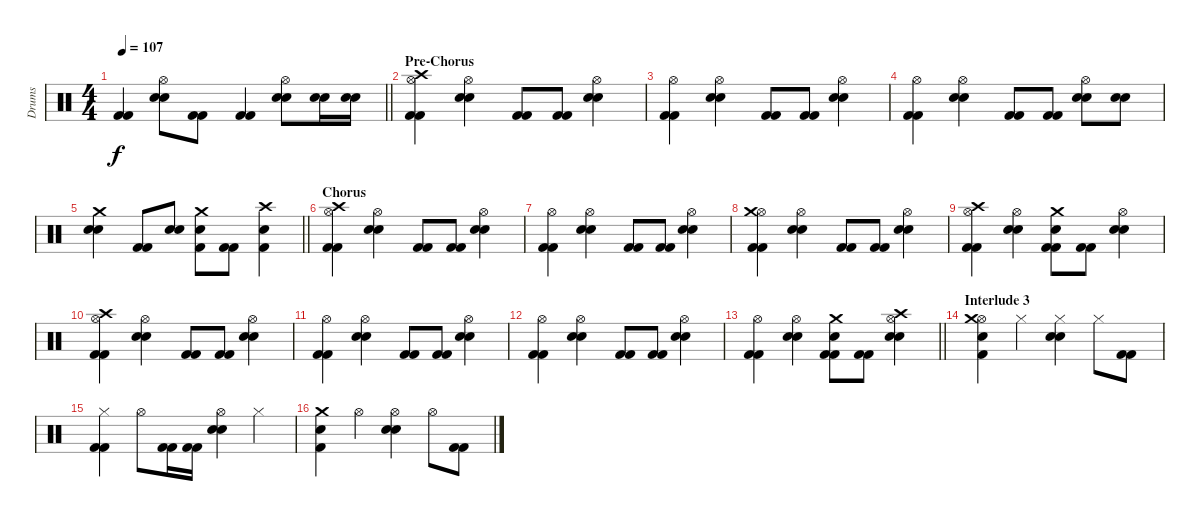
\track ("Drums" "Drums") {instrument percussion}
\staff {score}
\articulation defaults
\ts (4 4)
\tempo 107
\clef neutral
\barLineRight lightlight
\ks c
("Kick (hit) 2" "Kick (hit) 2").4{dy f} ("Snare (hit) 2" "Snare (hit) 2" "Hi-Hat (open)").8 ("Kick (hit) 2" "Kick (hit) 2").8 ("Kick (hit) 2" "Kick (hit) 2").4 ("Snare (hit) 2" "Snare (hit) 2" "Hi-Hat (open)").8 ("Snare (hit) 2" "Snare (hit) 2").16 ("Snare (hit) 2" "Snare (hit) 2").16 |
\section ("" "Pre-Chorus")
("Kick (hit) 2" "Kick (hit) 2" "Hi-Hat (open)" "Crash high (hit)").4 ("Snare (hit) 2" "Snare (hit) 2" "Hi-Hat (open)").4 ("Kick (hit) 2" "Kick (hit) 2").8 ("Kick (hit) 2" "Kick (hit) 2").8 ("Snare (hit) 2" "Snare (hit) 2" "Hi-Hat (open)").4 |
("Kick (hit) 2" "Kick (hit) 2" "Hi-Hat (open)").4 ("Snare (hit) 2" "Snare (hit) 2" "Hi-Hat (open)").4 ("Kick (hit) 2" "Kick (hit) 2").8 ("Kick (hit) 2" "Kick (hit) 2").8 ("Snare (hit) 2" "Snare (hit) 2" "Hi-Hat (open)").4 |
("Kick (hit) 2" "Kick (hit) 2" "Hi-Hat (open)").4 ("Snare (hit) 2" "Snare (hit) 2" "Hi-Hat (open)").4 ("Kick (hit) 2" "Kick (hit) 2").8 ("Kick (hit) 2" "Kick (hit) 2").8 ("Snare (hit) 2" "Snare (hit) 2" "Hi-Hat (open)").8 ("Snare (hit) 2" "Snare (hit) 2").8 |
\barLineRight lightlight
("Snare (hit) 2" "Snare (hit) 2" "Crash medium (hit)").4 ("Kick (hit) 2" "Kick (hit) 2").8 ("Snare (hit) 2" "Snare (hit) 2").8 ("Kick (hit) 2" "Snare (hit) 2" "Crash medium (hit)").8 ("Kick (hit) 2" "Kick (hit) 2").8 ("Kick (hit) 2" "Snare (hit) 2" "Crash high (hit)").4 |
\section ("" "Chorus")
("Kick (hit) 2" "Kick (hit) 2" "Hi-Hat (open)" "Crash high (hit)").4 ("Snare (hit) 2" "Snare (hit) 2" "Hi-Hat (open)").4 ("Kick (hit) 2" "Kick (hit) 2").8 ("Kick (hit) 2" "Kick (hit) 2").8 ("Snare (hit) 2" "Snare (hit) 2" "Hi-Hat (open)").4 |
("Kick (hit) 2" "Kick (hit) 2" "Hi-Hat (open)").4 ("Snare (hit) 2" "Snare (hit) 2" "Hi-Hat (open)").4 ("Kick (hit) 2" "Kick (hit) 2").8 ("Kick (hit) 2" "Kick (hit) 2").8 ("Snare (hit) 2" "Snare (hit) 2" "Hi-Hat (open)").4 |
("Kick (hit) 2" "Kick (hit) 2" "Hi-Hat (open)" "Crash medium (hit)").4 ("Snare (hit) 2" "Snare (hit) 2" "Hi-Hat (open)").4 ("Kick (hit) 2" "Kick (hit) 2").8 ("Kick (hit) 2" "Kick (hit) 2").8 ("Snare (hit) 2" "Snare (hit) 2" "Hi-Hat (open)").4 |
("Kick (hit) 2" "Kick (hit) 2" "Hi-Hat (open)" "Crash high (hit)").4 ("Snare (hit) 2" "Snare (hit) 2" "Hi-Hat (open)").4 ("Kick (hit) 2" "Kick (hit) 2" "Crash medium (hit)" "Snare (hit) 2").8 ("Kick (hit) 2" "Kick (hit) 2").8 ("Snare (hit) 2" "Snare (hit) 2" "Hi-Hat (open)").4 |
("Kick (hit) 2" "Kick (hit) 2" "Hi-Hat (open)" "Crash high (hit)").4 ("Snare (hit) 2" "Snare (hit) 2" "Hi-Hat (open)").4 ("Kick (hit) 2" "Kick (hit) 2").8 ("Kick (hit) 2" "Kick (hit) 2").8 ("Snare (hit) 2" "Snare (hit) 2" "Hi-Hat (open)").4 |
("Kick (hit) 2" "Kick (hit) 2" "Hi-Hat (open)").4 ("Snare (hit) 2" "Snare (hit) 2" "Hi-Hat (open)").4 ("Kick (hit) 2" "Kick (hit) 2").8 ("Kick (hit) 2" "Kick (hit) 2").8 ("Snare (hit) 2" "Snare (hit) 2" "Hi-Hat (open)").4 |
("Kick (hit) 2" "Kick (hit) 2" "Hi-Hat (open)").4 ("Snare (hit) 2" "Snare (hit) 2" "Hi-Hat (open)").4 ("Kick (hit) 2" "Kick (hit) 2").8 ("Kick (hit) 2" "Kick (hit) 2").8 ("Snare (hit) 2" "Snare (hit) 2" "Hi-Hat (open)").4 |
\barLineRight lightlight
("Kick (hit) 2" "Kick (hit) 2" "Hi-Hat (open)").4 ("Snare (hit) 2" "Snare (hit) 2" "Hi-Hat (open)").4 ("Kick (hit) 2" "Kick (hit) 2" "Crash medium (hit)" "Snare (hit) 2").8 ("Kick (hit) 2" "Kick (hit) 2").8 ("Snare (hit) 2" "Snare (hit) 2" "Hi-Hat (open)" "Crash high (hit)").4 |
\section ("" "Interlude 3")
("Kick (hit) 2" "Snare (hit) 2" "Hi-Hat (open)" "Crash medium (hit)").4 "Hi-Hat (closed)".4 ("Snare (hit) 2" "Snare (hit) 2" "Hi-Hat (closed)").4 "Hi-Hat (closed)".8 ("Kick (hit) 2" "Kick (hit) 2").8 |
("Kick (hit) 2" "Kick (hit) 2" "Hi-Hat (closed)").4 "Hi-Hat (open)".8 ("Kick (hit) 2" "Kick (hit) 2").16 ("Kick (hit) 2" "Kick (hit) 2").16 ("Snare (hit) 2" "Snare (hit) 2" "Hi-Hat (open)").4 "Hi-Hat (closed)".4 |
("Kick (hit) 2" "Snare (hit) 2" "Crash medium (hit)").4 "Hi-Hat (open)".4 ("Snare (hit) 2" "Snare (hit) 2" "Hi-Hat (open)").4 "Hi-Hat (open)".8 ("Kick (hit) 2" "Kick (hit) 2").8
